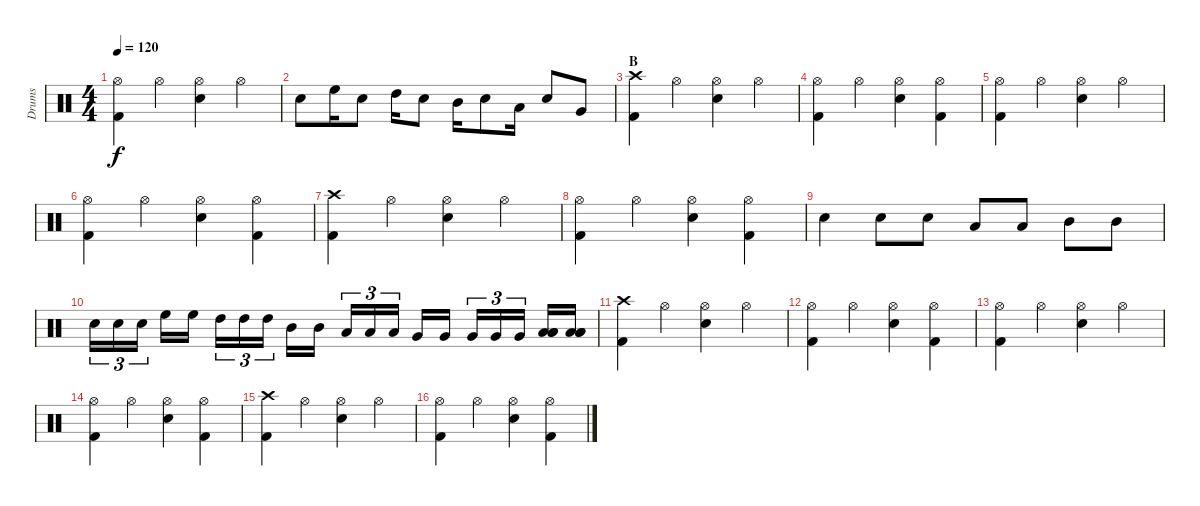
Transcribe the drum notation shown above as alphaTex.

\track ("Drums" "Drums") {instrument percussion}
\staff {score}
\articulation defaults
\ts (4 4)
\tempo 120
\clef neutral
\ks c
("Hi-Hat (open)" "Kick (hit) 2").4{dy f} "Hi-Hat (open)".4 ("Hi-Hat (open)" "Snare (hit) 2").4 "Hi-Hat (open)".4 |
"Snare (hit) 2".8 "High Floor Tom (hit)".16 "Snare (hit) 2".8 "High Tom (hit)".16 "Snare (hit) 2".8 "Mid Tom (hit)".16 "Snare (hit) 2".8 "Low Tom (hit)".16 "Snare (hit) 2".8 "Very Low Tom (hit)".8 |
\section ("" "B")
("Crash high (hit)" "Kick (hit) 2").4 "Hi-Hat (open)".4 ("Hi-Hat (open)" "Snare (hit) 2").4 "Hi-Hat (open)".4 |
("Hi-Hat (open)" "Kick (hit) 2").4 "Hi-Hat (open)".4 ("Hi-Hat (open)" "Snare (hit) 2").4 ("Hi-Hat (open)" "Kick (hit) 2").4 |
("Hi-Hat (open)" "Kick (hit) 2").4 "Hi-Hat (open)".4 ("Hi-Hat (open)" "Snare (hit) 2").4 "Hi-Hat (open)".4 |
("Hi-Hat (open)" "Kick (hit) 2").4 "Hi-Hat (open)".4 ("Hi-Hat (open)" "Snare (hit) 2").4 ("Hi-Hat (open)" "Kick (hit) 2").4 |
("Crash high (hit)" "Kick (hit) 2").4 "Hi-Hat (open)".4 ("Hi-Hat (open)" "Snare (hit) 2").4 "Hi-Hat (open)".4 |
("Hi-Hat (open)" "Kick (hit) 2").4 "Hi-Hat (open)".4 ("Hi-Hat (open)" "Snare (hit) 2").4 ("Hi-Hat (open)" "Kick (hit) 2").4 |
"Snare (hit) 2".4 "Snare (hit) 2".8 "Snare (hit) 2".8 "Low Tom (hit)".8 "Low Tom (hit)".8 "Mid Tom (hit)".8 "Mid Tom (hit)".8 |
"Snare (hit) 2".16{tu (3 2)} "Snare (hit) 2".16{tu (3 2)} "Snare (hit) 2".16{tu (3 2)} "High Floor Tom (hit)".16 "High Floor Tom (hit)".16 "High Tom (hit)".16{tu (3 2)} "High Tom (hit)".16{tu (3 2)} "High Tom (hit)".16{tu (3 2)} "Mid Tom (hit)".16 "Mid Tom (hit)".16 "Low Tom (hit)".16{tu (3 2)} "Low Tom (hit)".16{tu (3 2)} "Low Tom (hit)".16{tu (3 2)} "Very Low Tom (hit)".16 "Very Low Tom (hit)".16 "Very Low Tom (hit)".16{tu (3 2)} "Very Low Tom (hit)".16{tu (3 2)} "Very Low Tom (hit)".16{tu (3 2)} ("Low Floor Tom (hit)" "Low Floor Tom (hit)" "Low Floor Tom (hit)").16 ("Low Floor Tom (hit)" "Low Floor Tom (hit)" "Low Floor Tom (hit)").16 |
("Crash high (hit)" "Kick (hit) 2").4 "Hi-Hat (open)".4 ("Hi-Hat (open)" "Snare (hit) 2").4 "Hi-Hat (open)".4 |
("Hi-Hat (open)" "Kick (hit) 2").4 "Hi-Hat (open)".4 ("Hi-Hat (open)" "Snare (hit) 2").4 ("Hi-Hat (open)" "Kick (hit) 2").4 |
("Hi-Hat (open)" "Kick (hit) 2").4 "Hi-Hat (open)".4 ("Hi-Hat (open)" "Snare (hit) 2").4 "Hi-Hat (open)".4 |
("Hi-Hat (open)" "Kick (hit) 2").4 "Hi-Hat (open)".4 ("Hi-Hat (open)" "Snare (hit) 2").4 ("Hi-Hat (open)" "Kick (hit) 2").4 |
("Crash high (hit)" "Kick (hit) 2").4 "Hi-Hat (open)".4 ("Hi-Hat (open)" "Snare (hit) 2").4 "Hi-Hat (open)".4 |
("Hi-Hat (open)" "Kick (hit) 2").4 "Hi-Hat (open)".4 ("Hi-Hat (open)" "Snare (hit) 2").4 ("Hi-Hat (open)" "Kick (hit) 2").4
